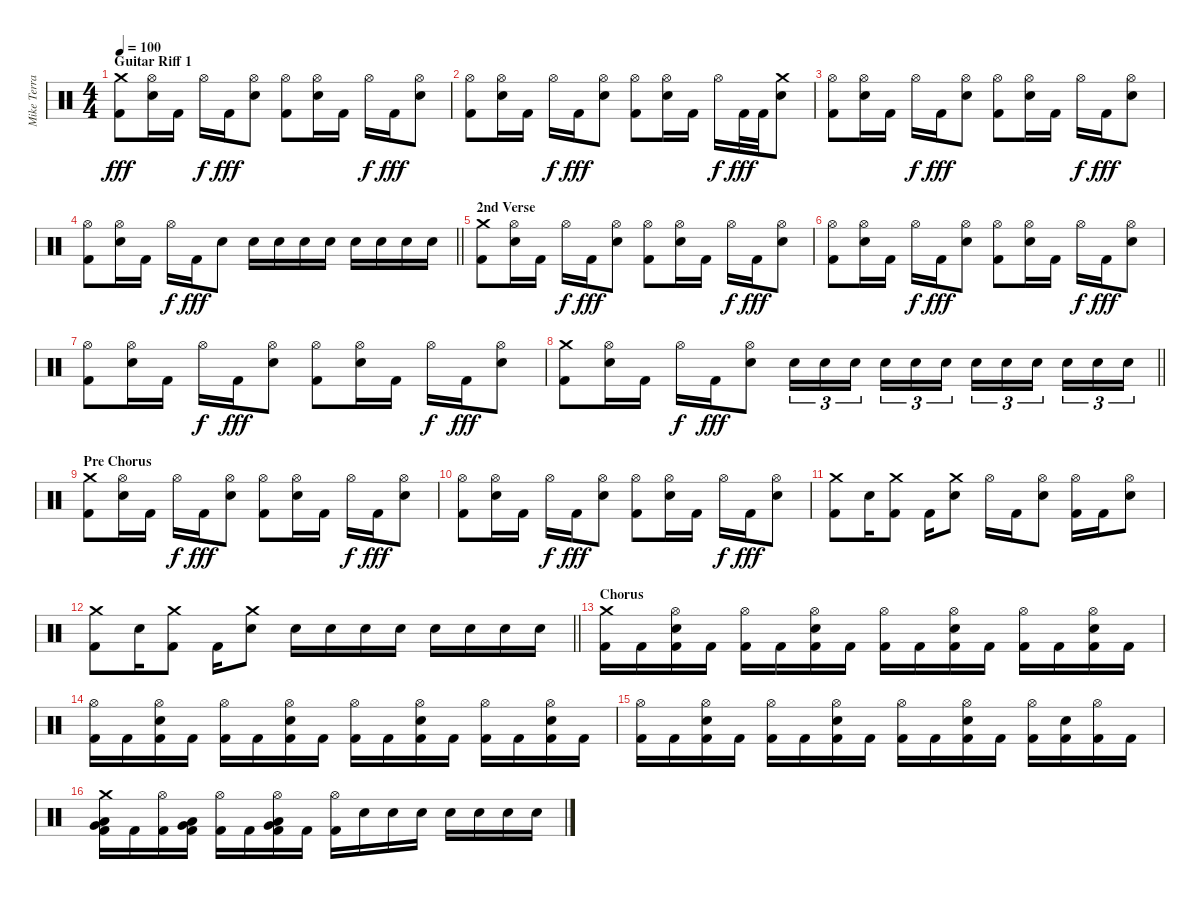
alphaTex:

\track ("Mike Terrana" "Mike Terra") {instrument percussion}
\staff {score}
\articulation defaults
\ts (4 4)
\section ("" "Guitar Riff 1")
\tempo 100
\clef neutral
\ks c
("Crash medium (hit)" "Kick (hit) 2").8{dy fff} ("Hi-Hat (open)" "Snare (hit) 2").16 "Kick (hit) 2".16 "Hi-Hat (open)".16{dy f} "Kick (hit) 2".16{dy fff} ("Hi-Hat (open)" "Snare (hit) 2").8 ("Hi-Hat (open)" "Kick (hit) 2").8 ("Hi-Hat (open)" "Snare (hit) 2").16 "Kick (hit) 2".16 "Hi-Hat (open)".16{dy f} "Kick (hit) 2".16{dy fff} ("Hi-Hat (open)" "Snare (hit) 2").8 |
("Hi-Hat (open)" "Kick (hit) 2").8 ("Hi-Hat (open)" "Snare (hit) 2").16 "Kick (hit) 2".16 "Hi-Hat (open)".16{dy f} "Kick (hit) 2".16{dy fff} ("Hi-Hat (open)" "Snare (hit) 2").8 ("Hi-Hat (open)" "Kick (hit) 2").8 ("Hi-Hat (open)" "Snare (hit) 2").16 "Kick (hit) 2".16 "Hi-Hat (open)".16{dy f} "Kick (hit) 2".32{dy fff} "Kick (hit) 2".32 ("Crash medium (hit)" "Snare (hit) 2").8 |
("Hi-Hat (open)" "Kick (hit) 2").8 ("Hi-Hat (open)" "Snare (hit) 2").16 "Kick (hit) 2".16 "Hi-Hat (open)".16{dy f} "Kick (hit) 2".16{dy fff} ("Hi-Hat (open)" "Snare (hit) 2").8 ("Hi-Hat (open)" "Kick (hit) 2").8 ("Hi-Hat (open)" "Snare (hit) 2").16 "Kick (hit) 2".16 "Hi-Hat (open)".16{dy f} "Kick (hit) 2".16{dy fff} ("Hi-Hat (open)" "Snare (hit) 2").8 |
\barLineRight lightlight
("Hi-Hat (open)" "Kick (hit) 2").8 ("Hi-Hat (open)" "Snare (hit) 2").16 "Kick (hit) 2".16 "Hi-Hat (open)".16{dy f} "Kick (hit) 2".16{dy fff} "Snare (hit) 2".8 "Snare (hit) 2".16 "Snare (hit) 2".16 "Snare (hit) 2".16 "Snare (hit) 2".16 "Snare (hit) 2".16 "Snare (hit) 2".16 "Snare (hit) 2".16 "Snare (hit) 2".16 |
\section ("" "2nd Verse")
("Crash medium (hit)" "Kick (hit) 2").8 ("Hi-Hat (open)" "Snare (hit) 2").16 "Kick (hit) 2".16 "Hi-Hat (open)".16{dy f} "Kick (hit) 2".16{dy fff} ("Hi-Hat (open)" "Snare (hit) 2").8 ("Hi-Hat (open)" "Kick (hit) 2").8 ("Hi-Hat (open)" "Snare (hit) 2").16 "Kick (hit) 2".16 "Hi-Hat (open)".16{dy f} "Kick (hit) 2".16{dy fff} ("Hi-Hat (open)" "Snare (hit) 2").8 |
("Hi-Hat (open)" "Kick (hit) 2").8 ("Hi-Hat (open)" "Snare (hit) 2").16 "Kick (hit) 2".16 "Hi-Hat (open)".16{dy f} "Kick (hit) 2".16{dy fff} ("Hi-Hat (open)" "Snare (hit) 2").8 ("Hi-Hat (open)" "Kick (hit) 2").8 ("Hi-Hat (open)" "Snare (hit) 2").16 "Kick (hit) 2".16 "Hi-Hat (open)".16{dy f} "Kick (hit) 2".16{dy fff} ("Hi-Hat (open)" "Snare (hit) 2").8 |
("Hi-Hat (open)" "Kick (hit) 2").8 ("Hi-Hat (open)" "Snare (hit) 2").16 "Kick (hit) 2".16 "Hi-Hat (open)".16{dy f} "Kick (hit) 2".16{dy fff} ("Hi-Hat (open)" "Snare (hit) 2").8 ("Hi-Hat (open)" "Kick (hit) 2").8 ("Hi-Hat (open)" "Snare (hit) 2").16 "Kick (hit) 2".16 "Hi-Hat (open)".16{dy f} "Kick (hit) 2".16{dy fff} ("Hi-Hat (open)" "Snare (hit) 2").8 |
\barLineRight lightlight
("Crash medium (hit)" "Kick (hit) 2").8 ("Hi-Hat (open)" "Snare (hit) 2").16 "Kick (hit) 2".16 "Hi-Hat (open)".16{dy f} "Kick (hit) 2".16{dy fff} ("Hi-Hat (open)" "Snare (hit) 2").8 "Snare (hit) 2".16{tu (3 2)} "Snare (hit) 2".16{tu (3 2)} "Snare (hit) 2".16{tu (3 2) beam splitsecondary} "Snare (hit) 2".16{tu (3 2)} "Snare (hit) 2".16{tu (3 2)} "Snare (hit) 2".16{tu (3 2)} "Snare (hit) 2".16{tu (3 2)} "Snare (hit) 2".16{tu (3 2)} "Snare (hit) 2".16{tu (3 2) beam splitsecondary} "Snare (hit) 2".16{tu (3 2)} "Snare (hit) 2".16{tu (3 2)} "Snare (hit) 2".16{tu (3 2)} |
\section ("" "Pre Chorus")
("Crash medium (hit)" "Kick (hit) 2").8 ("Hi-Hat (open)" "Snare (hit) 2").16 "Kick (hit) 2".16 "Hi-Hat (open)".16{dy f} "Kick (hit) 2".16{dy fff} ("Hi-Hat (open)" "Snare (hit) 2").8 ("Hi-Hat (open)" "Kick (hit) 2").8 ("Hi-Hat (open)" "Snare (hit) 2").16 "Kick (hit) 2".16 "Hi-Hat (open)".16{dy f} "Kick (hit) 2".16{dy fff} ("Hi-Hat (open)" "Snare (hit) 2").8 |
("Hi-Hat (open)" "Kick (hit) 2").8 ("Hi-Hat (open)" "Snare (hit) 2").16 "Kick (hit) 2".16 "Hi-Hat (open)".16{dy f} "Kick (hit) 2".16{dy fff} ("Hi-Hat (open)" "Snare (hit) 2").8 ("Hi-Hat (open)" "Kick (hit) 2").8 ("Hi-Hat (open)" "Snare (hit) 2").16 "Kick (hit) 2".16 "Hi-Hat (open)".16{dy f} "Kick (hit) 2".16{dy fff} ("Hi-Hat (open)" "Snare (hit) 2").8 |
("Crash medium (hit)" "Kick (hit) 2").8 "Snare (hit) 2".16 ("Crash medium (hit)" "Kick (hit) 2").8 "Kick (hit) 2".16 ("Crash medium (hit)" "Snare (hit) 2").8 "Hi-Hat (open)".16 "Kick (hit) 2".16 ("Hi-Hat (open)" "Snare (hit) 2").8 ("Hi-Hat (open)" "Kick (hit) 2").16 "Kick (hit) 2".16 ("Hi-Hat (open)" "Snare (hit) 2").8 |
\barLineRight lightlight
("Crash medium (hit)" "Kick (hit) 2").8 "Snare (hit) 2".16 ("Crash medium (hit)" "Kick (hit) 2").8 "Kick (hit) 2".16 ("Crash medium (hit)" "Snare (hit) 2").8 "Snare (hit) 2".16 "Snare (hit) 2".16 "Snare (hit) 2".16 "Snare (hit) 2".16 "Snare (hit) 2".16 "Snare (hit) 2".16 "Snare (hit) 2".16 "Snare (hit) 2".16 |
\section ("" "Chorus")
("Crash medium (hit)" "Kick (hit) 2").16 "Kick (hit) 2".16 ("Hi-Hat (open)" "Snare (hit) 2" "Kick (hit) 2").16 "Kick (hit) 2".16 ("Hi-Hat (open)" "Kick (hit) 2").16 "Kick (hit) 2".16 ("Hi-Hat (open)" "Snare (hit) 2" "Kick (hit) 2").16 "Kick (hit) 2".16 ("Hi-Hat (open)" "Kick (hit) 2").16 "Kick (hit) 2".16 ("Hi-Hat (open)" "Snare (hit) 2" "Kick (hit) 2").16 "Kick (hit) 2".16 ("Hi-Hat (open)" "Kick (hit) 2").16 "Kick (hit) 2".16 ("Hi-Hat (open)" "Snare (hit) 2" "Kick (hit) 2").16 "Kick (hit) 2".16 |
("Hi-Hat (open)" "Kick (hit) 2").16 "Kick (hit) 2".16 ("Hi-Hat (open)" "Snare (hit) 2" "Kick (hit) 2").16 "Kick (hit) 2".16 ("Hi-Hat (open)" "Kick (hit) 2").16 "Kick (hit) 2".16 ("Hi-Hat (open)" "Snare (hit) 2" "Kick (hit) 2").16 "Kick (hit) 2".16 ("Hi-Hat (open)" "Kick (hit) 2").16 "Kick (hit) 2".16 ("Hi-Hat (open)" "Snare (hit) 2" "Kick (hit) 2").16 "Kick (hit) 2".16 ("Hi-Hat (open)" "Kick (hit) 2").16 "Kick (hit) 2".16 ("Hi-Hat (open)" "Snare (hit) 2" "Kick (hit) 2").16 "Kick (hit) 2".16 |
("Hi-Hat (open)" "Kick (hit) 2").16 "Kick (hit) 2".16 ("Hi-Hat (open)" "Snare (hit) 2" "Kick (hit) 2").16 "Kick (hit) 2".16 ("Hi-Hat (open)" "Kick (hit) 2").16 "Kick (hit) 2".16 ("Hi-Hat (open)" "Snare (hit) 2" "Kick (hit) 2").16 "Kick (hit) 2".16 ("Hi-Hat (open)" "Kick (hit) 2").16 "Kick (hit) 2".16 ("Hi-Hat (open)" "Snare (hit) 2" "Kick (hit) 2").16 "Kick (hit) 2".16 ("Hi-Hat (open)" "Kick (hit) 2").16 ("Snare (hit) 2" "Kick (hit) 2").16 ("Hi-Hat (open)" "Kick (hit) 2").16 "Kick (hit) 2".16 |
("Crash medium (hit)" "Low Tom (hit)" "Very Low Tom (hit)" "Kick (hit) 2").16 "Kick (hit) 2".16 ("Hi-Hat (open)" "Kick (hit) 2").16 ("Low Tom (hit)" "Very Low Tom (hit)" "Kick (hit) 2").16 ("Hi-Hat (open)" "Kick (hit) 2").16 "Kick (hit) 2".16 ("Hi-Hat (open)" "Low Tom (hit)" "Very Low Tom (hit)" "Kick (hit) 2").16 "Kick (hit) 2".16 ("Hi-Hat (open)" "Kick (hit) 2").16 "Snare (hit) 2".16 "Snare (hit) 2".16 "Snare (hit) 2".16 "Snare (hit) 2".16 "Snare (hit) 2".16 "Snare (hit) 2".16 "Snare (hit) 2".16
